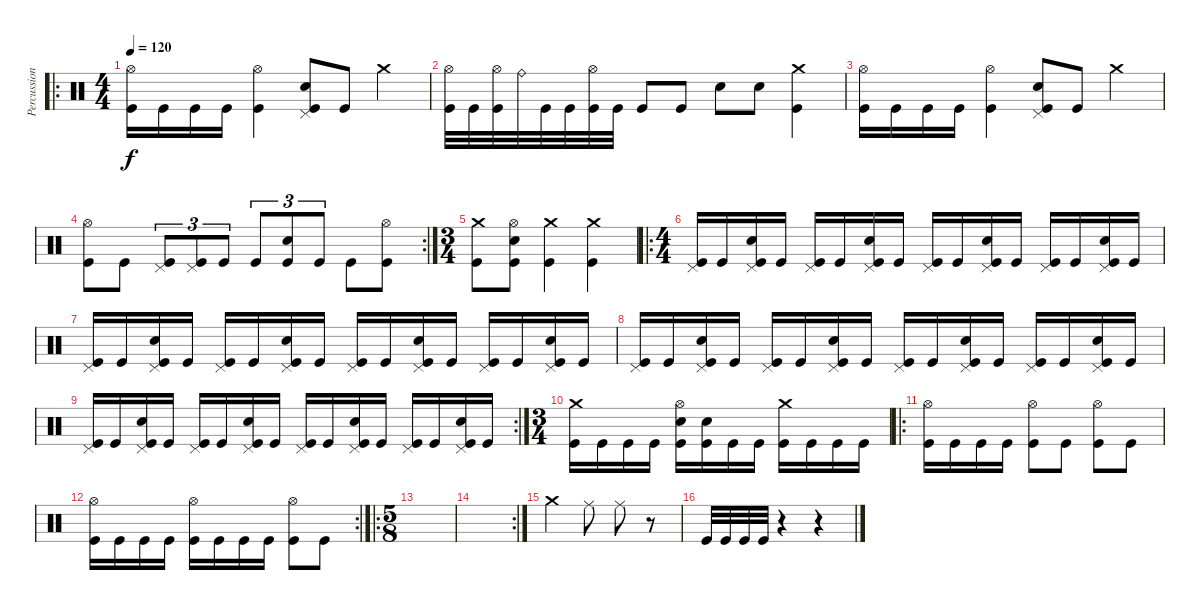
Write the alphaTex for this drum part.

\track ("Percussion" "Percussion") {instrument percussion}
\staff {score}
\articulation defaults
\ro
\ts (4 4)
\tempo 120
\clef neutral
\ks c
("Hi-Hat (open)" "Kick (hit)").16{dy f} "Kick (hit)".16 "Kick (hit)".16 "Kick (hit)".16 ("Hi-Hat (open)" "Kick (hit)").4 ("Pedal Hi-Hat (hit)" "Snare (hit) 2" "Kick (hit)").8 "Kick (hit)".8 "Crash medium (hit)".4 |
("Hi-Hat (open)" "Kick (hit)").32 "Kick (hit)".32 ("Hi-Hat (open)" "Kick (hit)").32 "Ride (bell)".32 "Kick (hit)".32 "Kick (hit)".32 ("Hi-Hat (open)" "Kick (hit)").32 "Kick (hit)".32 "Kick (hit)".8 "Kick (hit)".8 "Snare (hit) 2".8 "Snare (hit) 2".8 ("Crash medium (hit)" "Kick (hit)").4 |
("Hi-Hat (open)" "Kick (hit)").16 "Kick (hit)".16 "Kick (hit)".16 "Kick (hit)".16 ("Hi-Hat (open)" "Kick (hit)").4 ("Pedal Hi-Hat (hit)" "Snare (hit) 2" "Kick (hit)").8 "Kick (hit)".8 "Crash medium (hit)".4 |
\rc 2
("Hi-Hat (open)" "Kick (hit)").8 "Kick (hit)".8 ("Pedal Hi-Hat (hit)" "Kick (hit)").8{tu (3 2)} ("Pedal Hi-Hat (hit)" "Kick (hit)").8{tu (3 2)} "Kick (hit)".8{tu (3 2)} "Kick (hit)".8{tu (3 2)} ("Snare (hit) 2" "Kick (hit)").8{tu (3 2)} "Kick (hit)".8{tu (3 2)} "Kick (hit)".8 ("Hi-Hat (open)" "Kick (hit)").8 |
\ts (3 4)
("Crash medium (hit)" "Kick (hit)").8 ("Hi-Hat (open)" "Snare (hit) 2" "Kick (hit)").8 ("Crash medium (hit)" "Kick (hit)").4 ("Crash medium (hit)" "Kick (hit)").4 |
\ro
\ts (4 4)
("Pedal Hi-Hat (hit)" "Kick (hit)").16 "Kick (hit)".16 ("Pedal Hi-Hat (hit)" "Snare (hit) 2" "Kick (hit)").16 "Kick (hit)".16 ("Pedal Hi-Hat (hit)" "Kick (hit)").16 "Kick (hit)".16 ("Pedal Hi-Hat (hit)" "Snare (hit) 2" "Kick (hit)").16 "Kick (hit)".16 ("Pedal Hi-Hat (hit)" "Kick (hit)").16 "Kick (hit)".16 ("Pedal Hi-Hat (hit)" "Snare (hit) 2" "Kick (hit)").16 "Kick (hit)".16 ("Pedal Hi-Hat (hit)" "Kick (hit)").16 "Kick (hit)".16 ("Pedal Hi-Hat (hit)" "Snare (hit) 2" "Kick (hit)").16 "Kick (hit)".16 |
("Pedal Hi-Hat (hit)" "Kick (hit)").16 "Kick (hit)".16 ("Pedal Hi-Hat (hit)" "Snare (hit) 2" "Kick (hit)").16 "Kick (hit)".16 ("Pedal Hi-Hat (hit)" "Kick (hit)").16 "Kick (hit)".16 ("Pedal Hi-Hat (hit)" "Snare (hit) 2" "Kick (hit)").16 "Kick (hit)".16 ("Pedal Hi-Hat (hit)" "Kick (hit)").16 "Kick (hit)".16 ("Pedal Hi-Hat (hit)" "Snare (hit) 2" "Kick (hit)").16 "Kick (hit)".16 ("Pedal Hi-Hat (hit)" "Kick (hit)").16 "Kick (hit)".16 ("Pedal Hi-Hat (hit)" "Snare (hit) 2" "Kick (hit)").16 "Kick (hit)".16 |
("Pedal Hi-Hat (hit)" "Kick (hit)").16 "Kick (hit)".16 ("Pedal Hi-Hat (hit)" "Snare (hit) 2" "Kick (hit)").16 "Kick (hit)".16 ("Pedal Hi-Hat (hit)" "Kick (hit)").16 "Kick (hit)".16 ("Pedal Hi-Hat (hit)" "Snare (hit) 2" "Kick (hit)").16 "Kick (hit)".16 ("Pedal Hi-Hat (hit)" "Kick (hit)").16 "Kick (hit)".16 ("Pedal Hi-Hat (hit)" "Snare (hit) 2" "Kick (hit)").16 "Kick (hit)".16 ("Pedal Hi-Hat (hit)" "Kick (hit)").16 "Kick (hit)".16 ("Pedal Hi-Hat (hit)" "Snare (hit) 2" "Kick (hit)").16 "Kick (hit)".16 |
\rc 2
("Pedal Hi-Hat (hit)" "Kick (hit)").16 "Kick (hit)".16 ("Pedal Hi-Hat (hit)" "Snare (hit) 2" "Kick (hit)").16 "Kick (hit)".16 ("Pedal Hi-Hat (hit)" "Kick (hit)").16 "Kick (hit)".16 ("Pedal Hi-Hat (hit)" "Snare (hit) 2" "Kick (hit)").16 "Kick (hit)".16 ("Pedal Hi-Hat (hit)" "Kick (hit)").16 "Kick (hit)".16 ("Pedal Hi-Hat (hit)" "Snare (hit) 2" "Kick (hit)").16 "Kick (hit)".16 ("Pedal Hi-Hat (hit)" "Kick (hit)").16 "Kick (hit)".16 ("Pedal Hi-Hat (hit)" "Snare (hit) 2" "Kick (hit)").16 "Kick (hit)".16 |
\ts (3 4)
("Crash medium (hit)" "Kick (hit)").16 "Kick (hit)".16 "Kick (hit)".16 "Kick (hit)".16 ("Hi-Hat (open)" "Snare (hit) 2" "Kick (hit)").16 ("Snare (hit) 2" "Kick (hit)").16 "Kick (hit)".16 "Kick (hit)".16 ("Crash medium (hit)" "Kick (hit)").16 "Kick (hit)".16 "Kick (hit)".16 "Kick (hit)".16 |
\ro
("Hi-Hat (open)" "Kick (hit)").16 "Kick (hit)".16 "Kick (hit)".16 "Kick (hit)".16 ("Hi-Hat (open)" "Kick (hit)").8 "Kick (hit)".8 ("Hi-Hat (open)" "Kick (hit)").8 "Kick (hit)".8 |
\rc 2
("Hi-Hat (open)" "Kick (hit)").16 "Kick (hit)".16 "Kick (hit)".16 "Kick (hit)".16 ("Hi-Hat (open)" "Kick (hit)").16 "Kick (hit)".16 "Kick (hit)".16 "Kick (hit)".16 ("Hi-Hat (open)" "Kick (hit)").8 "Kick (hit)".8 |
\ro
\ts (5 8)
|
\rc 2
|
"Crash medium (hit)".4 "Ride (middle)".8 "Ride (middle)".8 r.8 |
"Kick (hit)".32 "Kick (hit)".32 "Kick (hit)".32 "Kick (hit)".32 r.4 r.4
